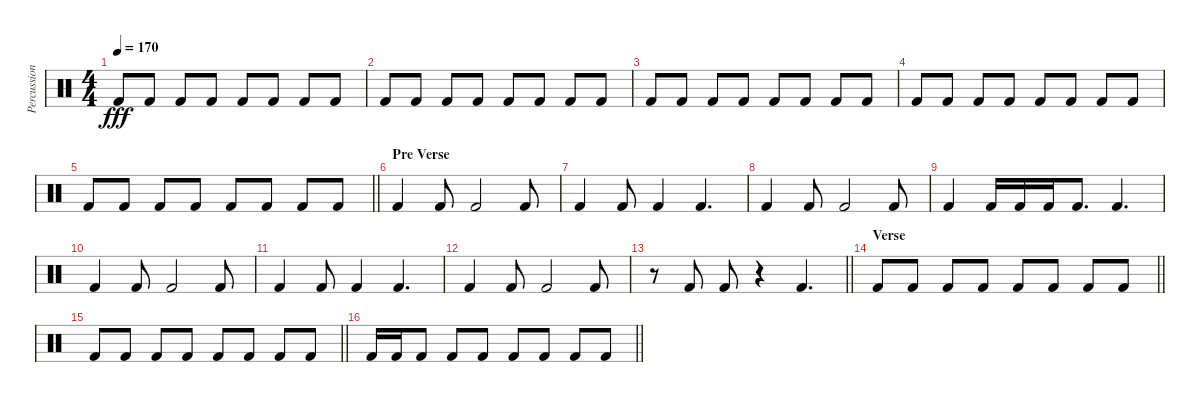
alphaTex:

\track ("Percussioni" "Percussion") {instrument percussion}
\staff
\articulation defaults
\ts (4 4)
\tempo 170
\clef neutral
\ks c "Kick (hit) 2".8{dy fff} "Kick (hit) 2".8 "Kick (hit) 2".8 "Kick (hit) 2".8 "Kick (hit) 2".8 "Kick (hit) 2".8 "Kick (hit) 2".8 "Kick (hit) 2".8
|
"Kick (hit) 2".8 "Kick (hit) 2".8 "Kick (hit) 2".8 "Kick (hit) 2".8 "Kick (hit) 2".8 "Kick (hit) 2".8 "Kick (hit) 2".8 "Kick (hit) 2".8 |
"Kick (hit) 2".8 "Kick (hit) 2".8 "Kick (hit) 2".8 "Kick (hit) 2".8 "Kick (hit) 2".8 "Kick (hit) 2".8 "Kick (hit) 2".8 "Kick (hit) 2".8 |
"Kick (hit) 2".8 "Kick (hit) 2".8 "Kick (hit) 2".8 "Kick (hit) 2".8 "Kick (hit) 2".8 "Kick (hit) 2".8 "Kick (hit) 2".8 "Kick (hit) 2".8 |
\barLineRight lightlight "Kick (hit) 2".8 "Kick (hit) 2".8 "Kick (hit) 2".8 "Kick (hit) 2".8 "Kick (hit) 2".8 "Kick (hit) 2".8 "Kick (hit) 2".8 "Kick (hit) 2".8
|
\section ("" "Pre Verse")
"Kick (hit) 2".4 "Kick (hit) 2".8 "Kick (hit) 2".2 "Kick (hit) 2".8 |
"Kick (hit) 2".4 "Kick (hit) 2".8 "Kick (hit) 2".4 "Kick (hit) 2".4{d} |
"Kick (hit) 2".4 "Kick (hit) 2".8 "Kick (hit) 2".2 "Kick (hit) 2".8 |
"Kick (hit) 2".4 "Kick (hit) 2".16 "Kick (hit) 2".16 "Kick (hit) 2".16 "Kick (hit) 2".8{d} "Kick (hit) 2".4{d} |
"Kick (hit) 2".4 "Kick (hit) 2".8 "Kick (hit) 2".2 "Kick (hit) 2".8 |
"Kick (hit) 2".4 "Kick (hit) 2".8 "Kick (hit) 2".4 "Kick (hit) 2".4{d} |
"Kick (hit) 2".4 "Kick (hit) 2".8 "Kick (hit) 2".2 "Kick (hit) 2".8 |
\barLineRight lightlight
r.8 "Kick (hit) 2".8 "Kick (hit) 2".8 r.4 "Kick (hit) 2".4{d} |
\section ("" "Verse")
\barLineRight lightlight "Kick (hit) 2".8 "Kick (hit) 2".8 "Kick (hit) 2".8 "Kick (hit) 2".8 "Kick (hit) 2".8 "Kick (hit) 2".8 "Kick (hit) 2".8 "Kick (hit) 2".8
|
\barLineRight lightlight "Kick (hit) 2".8 "Kick (hit) 2".8 "Kick (hit) 2".8 "Kick (hit) 2".8 "Kick (hit) 2".8 "Kick (hit) 2".8 "Kick (hit) 2".8 "Kick (hit) 2".8
|
\barLineRight lightlight "Kick (hit) 2".16 "Kick (hit) 2".16 "Kick (hit) 2".8 "Kick (hit) 2".8 "Kick (hit) 2".8 "Kick (hit) 2".8 "Kick (hit) 2".8 "Kick (hit) 2".8 "Kick (hit) 2".8
